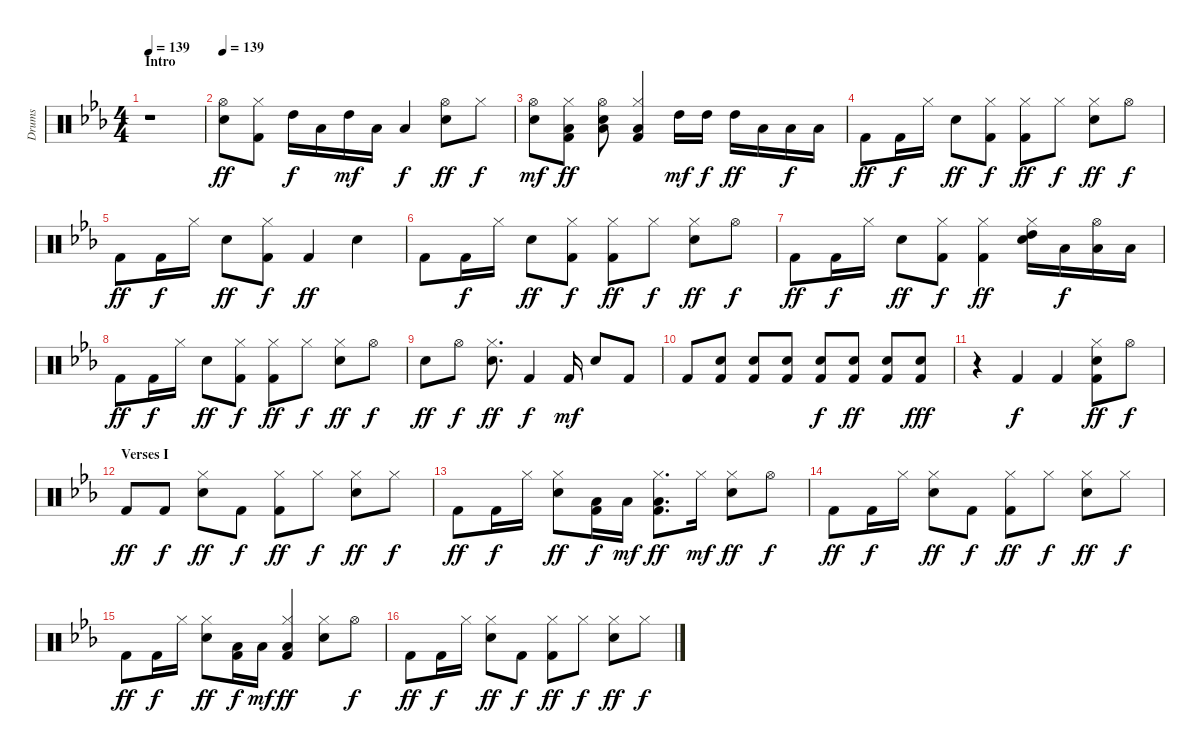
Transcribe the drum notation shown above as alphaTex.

\track ("Drums" "Drums") {instrument percussion}
\staff {score}
\articulation defaults
\ts (4 4)
\section ("" "Intro")
\tempo 139
\tempo 130
\tempo 139
\clef neutral
\ks cminor
r.1{dy ff} |
\tempo 139
("Snare (hit) 2" "Hi-Hat (open)").8 ("Kick (hit) 2" "Hi-Hat (closed)").8 "High Tom (hit)".16{dy f} "Low Floor Tom (hit)".16 "High Tom (hit)".16{dy mf} "Low Floor Tom (hit)".16 "Low Floor Tom (hit)".4{dy f} ("Snare (hit) 2" "Hi-Hat (open)").8{dy ff} "Hi-Hat (closed)".8{dy f} |
("Snare (hit) 2" "Hi-Hat (open)").8{dy mf} ("Low Floor Tom (hit)" "Kick (hit) 2" "Hi-Hat (closed)").8{dy ff} ("Low Floor Tom (hit)" "Snare (hit) 2" "Hi-Hat (open)").8 ("Low Floor Tom (hit)" "Kick (hit) 2" "Hi-Hat (closed)").4 "High Tom (hit)".16{dy mf} "High Tom (hit)".16{dy f} "High Tom (hit)".16{dy ff} "Low Tom (hit)".16 "Low Floor Tom (hit)".16{dy f} "Low Floor Tom (hit)".16 |
"Kick (hit) 2".8{dy ff} "Kick (hit) 2".16{dy f} "Hi-Hat (closed)".16 "Snare (hit) 2".8{dy ff} ("Kick (hit) 2" "Hi-Hat (closed)").8{dy f} ("Hi-Hat (closed)" "Kick (hit) 2").8{dy ff} "Hi-Hat (closed)".8{dy f} ("Hi-Hat (closed)" "Snare (hit) 2").8{dy ff} "Hi-Hat (open)".8{dy f} |
"Kick (hit) 2".8{dy ff} "Kick (hit) 2".16{dy f} "Hi-Hat (closed)".16 "Snare (hit) 2".8{dy ff} ("Kick (hit) 2" "Hi-Hat (closed)").8{dy f} "Kick (hit) 2".4{dy ff} "Snare (hit) 2".4 |
"Kick (hit) 2".8 "Kick (hit) 2".16{dy f} "Hi-Hat (closed)".16 "Snare (hit) 2".8{dy ff} ("Kick (hit) 2" "Hi-Hat (closed)").8{dy f} ("Hi-Hat (closed)" "Kick (hit) 2").8{dy ff} "Hi-Hat (closed)".8{dy f} ("Hi-Hat (closed)" "Snare (hit) 2").8{dy ff} "Hi-Hat (open)".8{dy f} |
"Kick (hit) 2".8{dy ff} "Kick (hit) 2".16{dy f} "Hi-Hat (closed)".16 "Snare (hit) 2".8{dy ff} ("Kick (hit) 2" "Hi-Hat (closed)").8{dy f} ("Hi-Hat (closed)" "Kick (hit) 2").4{dy ff} ("High Tom (hit)" "Hi-Hat (closed)" "Snare (hit) 2").16 "Low Tom (hit)".16{dy f} ("Low Floor Tom (hit)" "Hi-Hat (open)").16 "Low Floor Tom (hit)".16 |
"Kick (hit) 2".8{dy ff} "Kick (hit) 2".16{dy f} "Hi-Hat (closed)".16 "Snare (hit) 2".8{dy ff} ("Kick (hit) 2" "Hi-Hat (closed)").8{dy f} ("Hi-Hat (closed)" "Kick (hit) 2").8{dy ff} "Hi-Hat (closed)".8{dy f} ("Hi-Hat (closed)" "Snare (hit) 2").8{dy ff} "Hi-Hat (open)".8{dy f} |
"Snare (hit) 2".8{dy ff} "Hi-Hat (open)".8{dy f} ("Hi-Hat (closed)" "Snare (hit) 2").8{d dy ff} "Kick (hit) 2".4{dy f} "Kick (hit) 2".16{dy mf} "Snare (hit) 2".8 "Kick (hit) 2".8 |
"Kick (hit) 2".8 ("Kick (hit) 2" "Snare (hit) 2").8 ("Kick (hit) 2" "Snare (hit) 2").8 ("Kick (hit) 2" "Snare (hit) 2").8 ("Kick (hit) 2" "Snare (hit) 2").8{dy f} ("Kick (hit) 2" "Snare (hit) 2").8{dy ff} ("Kick (hit) 2" "Snare (hit) 2").8 ("Kick (hit) 2" "Snare (hit) 2").8{dy fff} |
r.4 "Kick (hit) 2".4{dy f} "Kick (hit) 2".4 ("Snare (hit) 2" "Kick (hit) 2" "Hi-Hat (closed)").8{dy ff} "Hi-Hat (open)".8{dy f} |
\section ("" "Verses I")
"Kick (hit) 2".8{dy ff} "Kick (hit) 2".8{dy f} ("Hi-Hat (closed)" "Snare (hit) 2").8{dy ff} "Kick (hit) 2".8{dy f} ("Hi-Hat (closed)" "Kick (hit) 2").8{dy ff} "Hi-Hat (closed)".8{dy f} ("Hi-Hat (closed)" "Snare (hit) 2").8{dy ff} "Hi-Hat (closed)".8{dy f} |
"Kick (hit) 2".8{dy ff} "Kick (hit) 2".16{dy f} "Hi-Hat (closed)".16 ("Hi-Hat (closed)" "Snare (hit) 2").8{dy ff} ("Low Floor Tom (hit)" "Kick (hit) 2").16{dy f} "Low Tom (hit)".16{dy mf} ("Low Floor Tom (hit)" "Hi-Hat (closed)" "Kick (hit) 2").8{d dy ff} "Hi-Hat (closed)".16{dy mf} ("Hi-Hat (closed)" "Snare (hit) 2").8{dy ff} "Hi-Hat (open)".8{dy f} |
"Kick (hit) 2".8{dy ff} "Kick (hit) 2".16{dy f} "Hi-Hat (closed)".16 ("Hi-Hat (closed)" "Snare (hit) 2").8{dy ff} "Kick (hit) 2".8{dy f} ("Hi-Hat (closed)" "Kick (hit) 2").8{dy ff} "Hi-Hat (closed)".8{dy f} ("Hi-Hat (closed)" "Snare (hit) 2").8{dy ff} "Hi-Hat (closed)".8{dy f} |
"Kick (hit) 2".8{dy ff} "Kick (hit) 2".16{dy f} "Hi-Hat (closed)".16 ("Hi-Hat (closed)" "Snare (hit) 2").8{dy ff} ("Low Floor Tom (hit)" "Kick (hit) 2").16{dy f} "Low Tom (hit)".16{dy mf} ("Low Floor Tom (hit)" "Hi-Hat (closed)" "Kick (hit) 2").4{dy ff} ("Hi-Hat (closed)" "Snare (hit) 2").8 "Hi-Hat (open)".8{dy f} |
"Kick (hit) 2".8{dy ff} "Kick (hit) 2".16{dy f} "Hi-Hat (closed)".16 ("Hi-Hat (closed)" "Snare (hit) 2").8{dy ff} "Kick (hit) 2".8{dy f} ("Hi-Hat (closed)" "Kick (hit) 2").8{dy ff} "Hi-Hat (closed)".8{dy f} ("Hi-Hat (closed)" "Snare (hit) 2").8{dy ff} "Hi-Hat (closed)".8{dy f}
